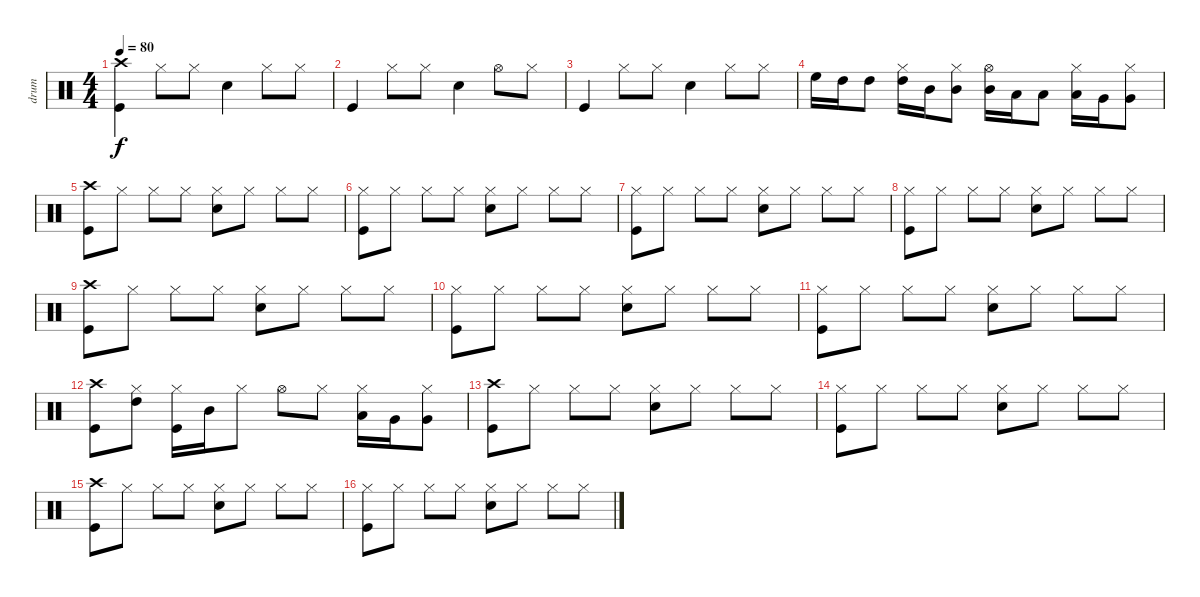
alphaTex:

\track ("drum" "drum") {instrument percussion}
\staff {score}
\articulation defaults
\ts (4 4)
\tempo 80
\clef neutral
\ks c
("Crash high (hit)" "Kick (hit)").4{dy f} "Hi-Hat (closed)".8 "Hi-Hat (closed)".8 "Snare (hit) 2".4 "Hi-Hat (closed)".8 "Hi-Hat (closed)".8 |
"Kick (hit)".4 "Hi-Hat (closed)".8 "Hi-Hat (closed)".8 "Snare (hit) 2".4 "Hi-Hat (open)".8 "Hi-Hat (closed)".8 |
"Kick (hit)".4 "Hi-Hat (closed)".8 "Hi-Hat (closed)".8 "Snare (hit) 2".4 "Hi-Hat (closed)".8 "Hi-Hat (closed)".8 |
"High Floor Tom (hit)".16 "High Tom (hit)".16 "High Tom (hit)".8 ("Hi-Hat (closed)" "High Tom (hit)").16 "Mid Tom (hit)".16 ("Hi-Hat (closed)" "Mid Tom (hit)").8 ("Hi-Hat (open)" "Mid Tom (hit)").16 "Low Tom (hit)".16 "Low Tom (hit)".8 ("Hi-Hat (closed)" "Low Tom (hit)").16 "Very Low Tom (hit)".16 ("Hi-Hat (closed)" "Very Low Tom (hit)").8 |
("Crash high (hit)" "Kick (hit)").8 "Hi-Hat (closed)".8 "Hi-Hat (closed)".8 "Hi-Hat (closed)".8 ("Hi-Hat (closed)" "Snare (hit) 2").8 "Hi-Hat (closed)".8 "Hi-Hat (closed)".8 "Hi-Hat (closed)".8 |
("Hi-Hat (closed)" "Kick (hit)").8 "Hi-Hat (closed)".8 "Hi-Hat (closed)".8 "Hi-Hat (closed)".8 ("Hi-Hat (closed)" "Snare (hit) 2").8 "Hi-Hat (closed)".8 "Hi-Hat (closed)".8 "Hi-Hat (closed)".8 |
("Hi-Hat (closed)" "Kick (hit)").8 "Hi-Hat (closed)".8 "Hi-Hat (closed)".8 "Hi-Hat (closed)".8 ("Hi-Hat (closed)" "Snare (hit) 2").8 "Hi-Hat (closed)".8 "Hi-Hat (closed)".8 "Hi-Hat (closed)".8 |
("Hi-Hat (closed)" "Kick (hit)").8 "Hi-Hat (closed)".8 "Hi-Hat (closed)".8 "Hi-Hat (closed)".8 ("Hi-Hat (closed)" "Snare (hit) 2").8 "Hi-Hat (closed)".8 "Hi-Hat (closed)".8 "Hi-Hat (closed)".8 |
("Crash high (hit)" "Kick (hit)").8 "Hi-Hat (closed)".8 "Hi-Hat (closed)".8 "Hi-Hat (closed)".8 ("Hi-Hat (closed)" "Snare (hit) 2").8 "Hi-Hat (closed)".8 "Hi-Hat (closed)".8 "Hi-Hat (closed)".8 |
("Hi-Hat (closed)" "Kick (hit)").8 "Hi-Hat (closed)".8 "Hi-Hat (closed)".8 "Hi-Hat (closed)".8 ("Hi-Hat (closed)" "Snare (hit) 2").8 "Hi-Hat (closed)".8 "Hi-Hat (closed)".8 "Hi-Hat (closed)".8 |
("Hi-Hat (closed)" "Kick (hit)").8 "Hi-Hat (closed)".8 "Hi-Hat (closed)".8 "Hi-Hat (closed)".8 ("Hi-Hat (closed)" "Snare (hit) 2").8 "Hi-Hat (closed)".8 "Hi-Hat (closed)".8 "Hi-Hat (closed)".8 |
("Crash high (hit)" "Kick (hit)").8 ("Hi-Hat (closed)" "High Tom (hit)").8 ("Hi-Hat (closed)" "Kick (hit)").16 "Mid Tom (hit)".16 "Hi-Hat (closed)".8 "Hi-Hat (open)".8 "Hi-Hat (closed)".8 ("Hi-Hat (closed)" "Low Tom (hit)").16 "Very Low Tom (hit)".16 ("Hi-Hat (closed)" "Very Low Tom (hit)").8 |
("Crash high (hit)" "Kick (hit)").8 "Hi-Hat (closed)".8 "Hi-Hat (closed)".8 "Hi-Hat (closed)".8 ("Hi-Hat (closed)" "Snare (hit) 2").8 "Hi-Hat (closed)".8 "Hi-Hat (closed)".8 "Hi-Hat (closed)".8 |
("Hi-Hat (closed)" "Kick (hit)").8 "Hi-Hat (closed)".8 "Hi-Hat (closed)".8 "Hi-Hat (closed)".8 ("Hi-Hat (closed)" "Snare (hit) 2").8 "Hi-Hat (closed)".8 "Hi-Hat (closed)".8 "Hi-Hat (closed)".8 |
("Crash high (hit)" "Kick (hit)").8 "Hi-Hat (closed)".8 "Hi-Hat (closed)".8 "Hi-Hat (closed)".8 ("Hi-Hat (closed)" "Snare (hit) 2").8 "Hi-Hat (closed)".8 "Hi-Hat (closed)".8 "Hi-Hat (closed)".8 |
("Hi-Hat (closed)" "Kick (hit)").8 "Hi-Hat (closed)".8 "Hi-Hat (closed)".8 "Hi-Hat (closed)".8 ("Hi-Hat (closed)" "Snare (hit) 2").8 "Hi-Hat (closed)".8 "Hi-Hat (closed)".8 "Hi-Hat (closed)".8
